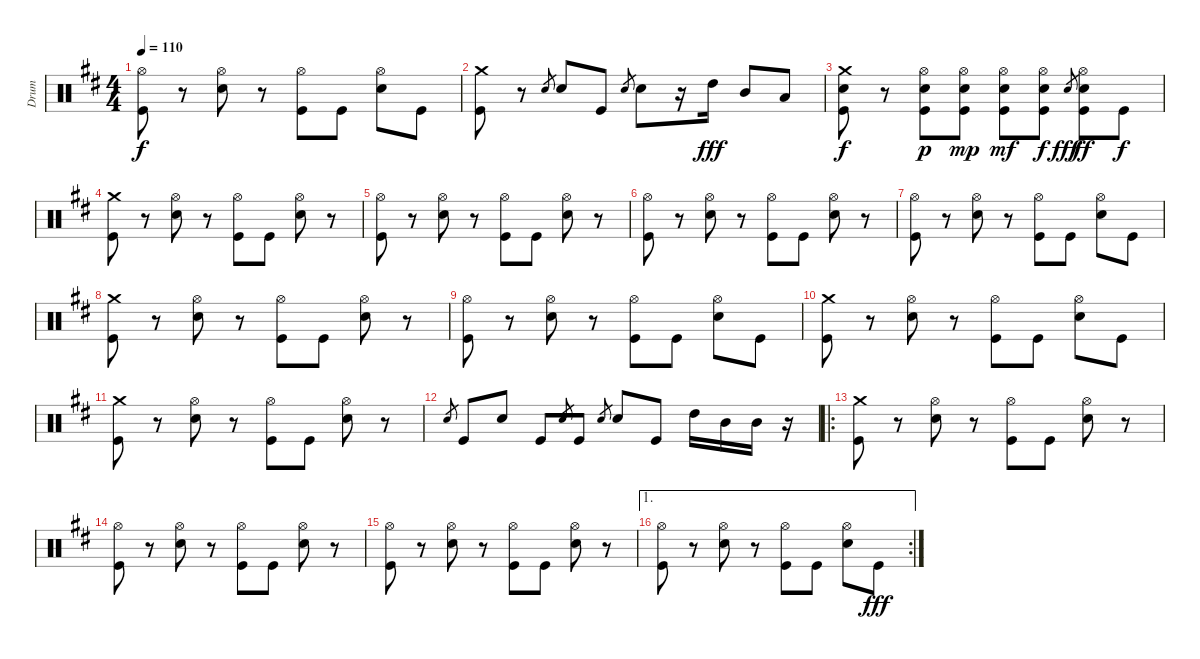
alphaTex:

\track ("Drum" "Drum") {instrument percussion}
\staff {score}
\articulation defaults
\ts (4 4)
\tempo 110
\clef neutral
\ks d
("Hi-Hat (open)" "Kick (hit)").8{dy f} r.8 ("Hi-Hat (open)" "Electric Snare (hit)").8 r.8 ("Hi-Hat (open)" "Kick (hit)").8 "Kick (hit)".8 ("Hi-Hat (open)" "Electric Snare (hit)").8 "Kick (hit)".8 |
("Crash medium (hit)" "Kick (hit)").8 r.8 "Electric Snare (hit)".8{gr} "Electric Snare (hit)".8 "Kick (hit)".8 "Electric Snare (hit)".8{gr} "Electric Snare (hit)".8 r.16 "High Tom (hit)".16{dy fff} "Mid Tom (hit)".8 "Low Tom (hit)".8 |
("Crash medium (hit)" "Electric Snare (hit)" "Kick (hit)").8{dy f} r.8 ("Kick (hit)" "Electric Snare (hit)" "Hi-Hat (open)").8{dy p} ("Kick (hit)" "Electric Snare (hit)" "Hi-Hat (open)").8{dy mp} ("Kick (hit)" "Electric Snare (hit)" "Hi-Hat (open)").8{dy mf} ("Kick (hit)" "Electric Snare (hit)" "Hi-Hat (open)").8{dy f} "Electric Snare (hit)".8{gr dy fff} ("Kick (hit)" "Electric Snare (hit)" "Hi-Hat (open)").8{dy ff} "Kick (hit)".8{dy f} |
("Crash medium (hit)" "Kick (hit)").8 r.8 ("Hi-Hat (open)" "Electric Snare (hit)").8 r.8 ("Hi-Hat (open)" "Kick (hit)").8 "Kick (hit)".8 ("Hi-Hat (open)" "Electric Snare (hit)").8 r.8 |
("Hi-Hat (open)" "Kick (hit)").8 r.8 ("Hi-Hat (open)" "Electric Snare (hit)").8 r.8 ("Hi-Hat (open)" "Kick (hit)").8 "Kick (hit)".8 ("Hi-Hat (open)" "Electric Snare (hit)").8 r.8 |
("Hi-Hat (open)" "Kick (hit)").8 r.8 ("Hi-Hat (open)" "Electric Snare (hit)").8 r.8 ("Hi-Hat (open)" "Kick (hit)").8 "Kick (hit)".8 ("Hi-Hat (open)" "Electric Snare (hit)").8 r.8 |
("Hi-Hat (open)" "Kick (hit)").8 r.8 ("Hi-Hat (open)" "Electric Snare (hit)").8 r.8 ("Hi-Hat (open)" "Kick (hit)").8 "Kick (hit)".8 ("Hi-Hat (open)" "Electric Snare (hit)").8 "Kick (hit)".8 |
("Crash medium (hit)" "Kick (hit)").8 r.8 ("Hi-Hat (open)" "Electric Snare (hit)").8 r.8 ("Hi-Hat (open)" "Kick (hit)").8 "Kick (hit)".8 ("Hi-Hat (open)" "Electric Snare (hit)").8 r.8 |
("Hi-Hat (open)" "Kick (hit)").8 r.8 ("Hi-Hat (open)" "Electric Snare (hit)").8 r.8 ("Hi-Hat (open)" "Kick (hit)").8 "Kick (hit)".8 ("Hi-Hat (open)" "Electric Snare (hit)").8 "Kick (hit)".8 |
("Crash medium (hit)" "Kick (hit)").8 r.8 ("Hi-Hat (open)" "Electric Snare (hit)").8 r.8 ("Hi-Hat (open)" "Kick (hit)").8 "Kick (hit)".8 ("Hi-Hat (open)" "Electric Snare (hit)").8 "Kick (hit)".8 |
("Crash medium (hit)" "Kick (hit)").8 r.8 ("Hi-Hat (open)" "Electric Snare (hit)").8 r.8 ("Hi-Hat (open)" "Kick (hit)").8 "Kick (hit)".8 ("Hi-Hat (open)" "Electric Snare (hit)").8 r.8 |
"Electric Snare (hit)".8{gr} "Kick (hit)".8 "Electric Snare (hit)".8 "Kick (hit)".8 "Electric Snare (hit)".8{gr} "Kick (hit)".8 "Electric Snare (hit)".8{gr} "Electric Snare (hit)".8 "Kick (hit)".8 "High Tom (hit)".16 "Mid Tom (hit)".16 "Mid Tom (hit)".16 r.16 |
\ro
("Crash medium (hit)" "Kick (hit)").8 r.8 ("Hi-Hat (open)" "Electric Snare (hit)").8 r.8 ("Hi-Hat (open)" "Kick (hit)").8 "Kick (hit)".8 ("Hi-Hat (open)" "Electric Snare (hit)").8 r.8 |
("Hi-Hat (open)" "Kick (hit)").8 r.8 ("Hi-Hat (open)" "Electric Snare (hit)").8 r.8 ("Hi-Hat (open)" "Kick (hit)").8 "Kick (hit)".8 ("Hi-Hat (open)" "Electric Snare (hit)").8 r.8 |
("Hi-Hat (open)" "Kick (hit)").8 r.8 ("Hi-Hat (open)" "Electric Snare (hit)").8 r.8 ("Hi-Hat (open)" "Kick (hit)").8 "Kick (hit)".8 ("Hi-Hat (open)" "Electric Snare (hit)").8 r.8 |
\ae 1
\rc 2
("Hi-Hat (open)" "Kick (hit)").8 r.8 ("Hi-Hat (open)" "Electric Snare (hit)").8 r.8 ("Hi-Hat (open)" "Kick (hit)").8 "Kick (hit)".8 ("Hi-Hat (open)" "Electric Snare (hit)").8 "Kick (hit)".8{dy fff}
